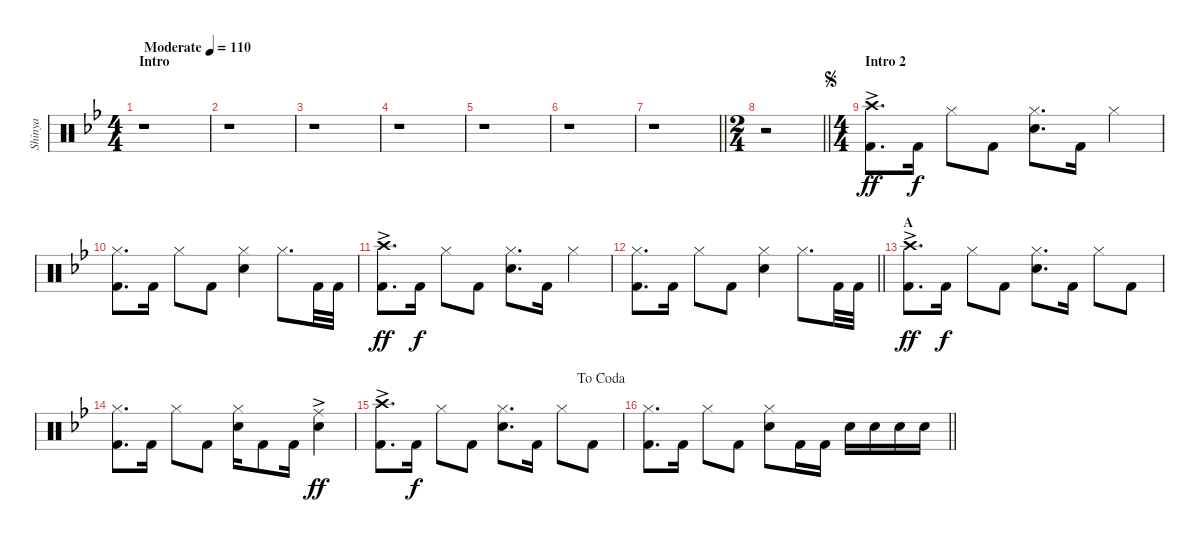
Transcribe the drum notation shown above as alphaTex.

\track ("Shinya" "Shinya") {instrument percussion}
\staff {score}
\articulation defaults
\ts (4 4)
\section ("" "Intro")
\tempo (110 "Moderate")
\clef neutral
\ks bb
r.1{dy ff} |
r.1 |
r.1 |
r.1 |
r.1 |
r.1 |
\barLineRight lightlight
r.1 |
\ts (2 4)
\barLineRight lightlight
r.2 |
\ts (4 4)
\section ("" "Intro 2")
\jump segno
("Crash high (hit)"{ac} "Kick (hit) 2").8{d} "Kick (hit) 2".16{dy f} "Hi-Hat (closed)".8 "Kick (hit) 2".8 ("Hi-Hat (closed)" "Snare (hit) 2").8{d} "Kick (hit) 2".16 "Hi-Hat (closed)".4 |
("Hi-Hat (closed)" "Kick (hit) 2").8{d} "Kick (hit) 2".16 "Hi-Hat (closed)".8 "Kick (hit) 2".8 ("Hi-Hat (closed)" "Snare (hit) 2").4 "Hi-Hat (closed)".8{d} "Kick (hit) 2".32 "Kick (hit) 2".32 |
("Crash high (hit)"{ac} "Kick (hit) 2").8{d dy ff} "Kick (hit) 2".16{dy f} "Hi-Hat (closed)".8 "Kick (hit) 2".8 ("Hi-Hat (closed)" "Snare (hit) 2").8{d} "Kick (hit) 2".16 "Hi-Hat (closed)".4 |
\barLineRight lightlight
("Hi-Hat (closed)" "Kick (hit) 2").8{d} "Kick (hit) 2".16 "Hi-Hat (closed)".8 "Kick (hit) 2".8 ("Hi-Hat (closed)" "Snare (hit) 2").4 "Hi-Hat (closed)".8{d} "Kick (hit) 2".32 "Kick (hit) 2".32 |
\section ("" "A")
("Crash high (hit)"{ac} "Kick (hit) 2").8{d dy ff} "Kick (hit) 2".16{dy f} "Hi-Hat (closed)".8 "Kick (hit) 2".8 ("Hi-Hat (closed)" "Snare (hit) 2").8{d} "Kick (hit) 2".16 "Hi-Hat (closed)".8 "Kick (hit) 2".8 |
("Hi-Hat (closed)" "Kick (hit) 2").8{d} "Kick (hit) 2".16 "Hi-Hat (closed)".8 "Kick (hit) 2".8 ("Hi-Hat (closed)" "Snare (hit) 2").16 "Kick (hit) 2".8 "Kick (hit) 2".16 ("Ride (middle)"{ac} "Snare (hit) 2").4{dy ff} |
\jump dacoda
("Crash high (hit)"{ac} "Kick (hit) 2").8{d} "Kick (hit) 2".16{dy f} "Hi-Hat (closed)".8 "Kick (hit) 2".8 ("Hi-Hat (closed)" "Snare (hit) 2").8{d} "Kick (hit) 2".16 "Hi-Hat (closed)".8 "Kick (hit) 2".8 |
\barLineRight lightlight
("Hi-Hat (closed)" "Kick (hit) 2").8{d} "Kick (hit) 2".16 "Hi-Hat (closed)".8 "Kick (hit) 2".8 ("Hi-Hat (closed)" "Snare (hit) 2").8 "Kick (hit) 2".16 "Kick (hit) 2".16 "Snare (hit) 2".16 "Snare (hit) 2".16 "Snare (hit) 2".16 "Snare (hit) 2".16
